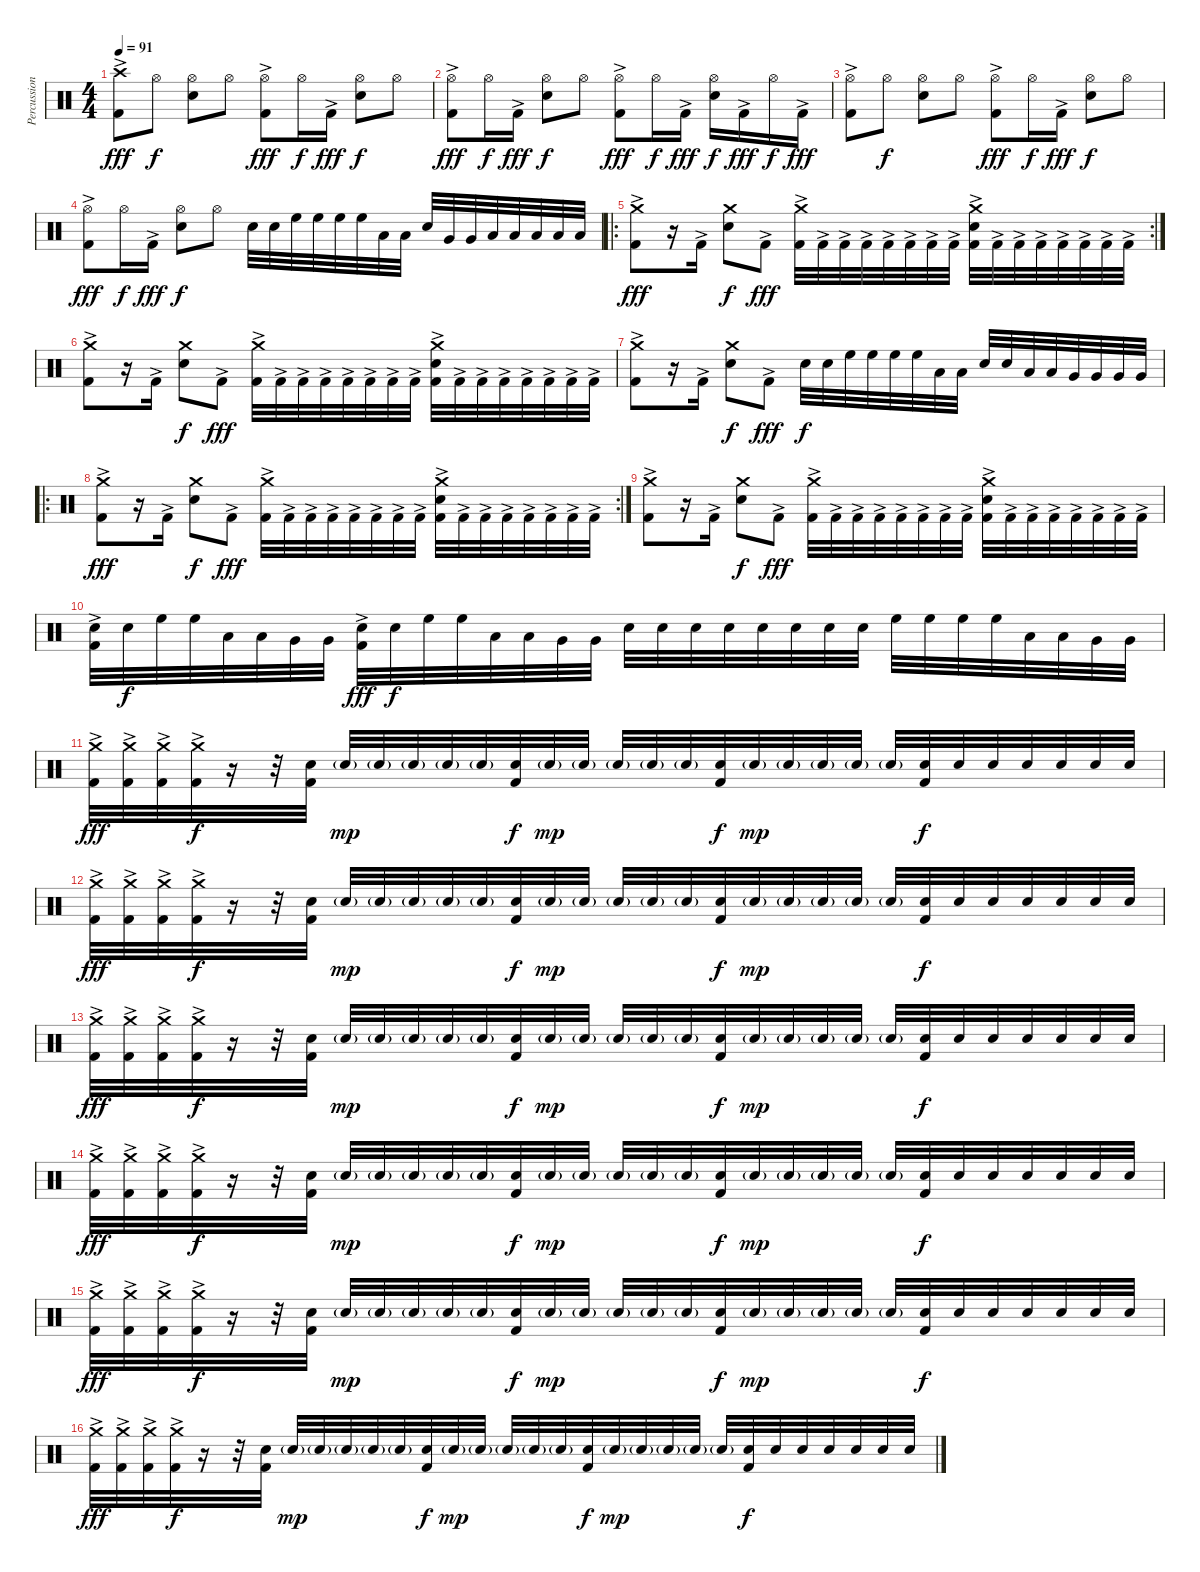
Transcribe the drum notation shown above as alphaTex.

\track ("Percussion" "Percussion") {instrument percussion}
\staff {score}
\articulation defaults
\ts (4 4)
\tempo 91
\clef neutral
\ks c
("Crash high (hit)" "Kick (hit) 2"{ac}).8{dy fff} "Hi-Hat (open)".8{dy f} ("Hi-Hat (open)" "Electric Snare (hit)").8 "Hi-Hat (open)".8 ("Hi-Hat (open)" "Kick (hit) 2"{ac}).8{dy fff} "Hi-Hat (open)".16{dy f} "Kick (hit) 2"{ac}.16{dy fff} ("Hi-Hat (open)" "Electric Snare (hit)").8{dy f} "Hi-Hat (open)".8 |
("Hi-Hat (open)" "Kick (hit) 2"{ac}).8{dy fff} "Hi-Hat (open)".16{dy f} "Kick (hit) 2"{ac}.16{dy fff} ("Hi-Hat (open)" "Electric Snare (hit)").8{dy f} "Hi-Hat (open)".8 ("Hi-Hat (open)" "Kick (hit) 2"{ac}).8{dy fff} "Hi-Hat (open)".16{dy f} "Kick (hit) 2"{ac}.16{dy fff} ("Hi-Hat (open)" "Electric Snare (hit)").16{dy f} "Kick (hit) 2"{ac}.16{dy fff} "Hi-Hat (open)".16{dy f} "Kick (hit) 2"{ac}.16{dy fff} |
("Hi-Hat (open)" "Kick (hit) 2"{ac}).8 "Hi-Hat (open)".8{dy f} ("Hi-Hat (open)" "Electric Snare (hit)").8 "Hi-Hat (open)".8 ("Hi-Hat (open)" "Kick (hit) 2"{ac}).8{dy fff} "Hi-Hat (open)".16{dy f} "Kick (hit) 2"{ac}.16{dy fff} ("Hi-Hat (open)" "Electric Snare (hit)").8{dy f} "Hi-Hat (open)".8 |
("Hi-Hat (open)" "Kick (hit) 2"{ac}).8{dy fff} "Hi-Hat (open)".16{dy f} "Kick (hit) 2"{ac}.16{dy fff} ("Hi-Hat (open)" "Electric Snare (hit)").8{dy f} "Hi-Hat (open)".8 "Electric Snare (hit)".32 "Electric Snare (hit)".32 "High Floor Tom (hit)".32 "High Floor Tom (hit)".32 "High Floor Tom (hit)".32 "High Floor Tom (hit)".32 "Low Tom (hit)".32 "Low Tom (hit)".32 "Electric Snare (hit)".32 "Very Low Tom (hit)".32 "Very Low Tom (hit)".32 "Low Floor Tom (hit)".32 "Low Floor Tom (hit)".32 "Low Floor Tom (hit)".32 "Low Floor Tom (hit)".32 "Low Floor Tom (hit)".32 |
\ro
\rc 2
("Crash medium (hit)" "Kick (hit) 2"{ac}).8{dy fff} r.16 "Kick (hit) 2"{ac}.16 ("Crash medium (hit)" "Electric Snare (hit)").8{dy f} "Kick (hit) 2"{ac}.8{dy fff} ("Crash medium (hit)" "Kick (hit) 2"{ac}).32 "Kick (hit) 2"{ac}.32 "Kick (hit) 2"{ac}.32 "Kick (hit) 2"{ac}.32 "Kick (hit) 2"{ac}.32 "Kick (hit) 2"{ac}.32 "Kick (hit) 2"{ac}.32 "Kick (hit) 2"{ac}.32 ("Crash medium (hit)" "Electric Snare (hit)" "Kick (hit) 2"{ac}).32 "Kick (hit) 2"{ac}.32 "Kick (hit) 2"{ac}.32 "Kick (hit) 2"{ac}.32 "Kick (hit) 2"{ac}.32 "Kick (hit) 2"{ac}.32 "Kick (hit) 2"{ac}.32 "Kick (hit) 2"{ac}.32 |
("Crash medium (hit)" "Kick (hit) 2"{ac}).8 r.16 "Kick (hit) 2"{ac}.16 ("Crash medium (hit)" "Electric Snare (hit)").8{dy f} "Kick (hit) 2"{ac}.8{dy fff} ("Crash medium (hit)" "Kick (hit) 2"{ac}).32 "Kick (hit) 2"{ac}.32 "Kick (hit) 2"{ac}.32 "Kick (hit) 2"{ac}.32 "Kick (hit) 2"{ac}.32 "Kick (hit) 2"{ac}.32 "Kick (hit) 2"{ac}.32 "Kick (hit) 2"{ac}.32 ("Crash medium (hit)" "Electric Snare (hit)" "Kick (hit) 2"{ac}).32 "Kick (hit) 2"{ac}.32 "Kick (hit) 2"{ac}.32 "Kick (hit) 2"{ac}.32 "Kick (hit) 2"{ac}.32 "Kick (hit) 2"{ac}.32 "Kick (hit) 2"{ac}.32 "Kick (hit) 2"{ac}.32 |
("Crash medium (hit)" "Kick (hit) 2"{ac}).8 r.16 "Kick (hit) 2"{ac}.16 ("Crash medium (hit)" "Electric Snare (hit)").8{dy f} "Kick (hit) 2"{ac}.8{dy fff} "Electric Snare (hit)".32{dy f} "Electric Snare (hit)".32 "High Floor Tom (hit)".32 "High Floor Tom (hit)".32 "High Floor Tom (hit)".32 "High Floor Tom (hit)".32 "Low Tom (hit)".32 "Low Tom (hit)".32 "Electric Snare (hit)".32 "Electric Snare (hit)".32 "Low Tom (hit)".32 "Low Tom (hit)".32 "Very Low Tom (hit)".32 "Very Low Tom (hit)".32 "Very Low Tom (hit)".32 "Very Low Tom (hit)".32 |
\ro
\rc 2
("Crash medium (hit)" "Kick (hit) 2"{ac}).8{dy fff} r.16 "Kick (hit) 2"{ac}.16 ("Crash medium (hit)" "Electric Snare (hit)").8{dy f} "Kick (hit) 2"{ac}.8{dy fff} ("Crash medium (hit)" "Kick (hit) 2"{ac}).32 "Kick (hit) 2"{ac}.32 "Kick (hit) 2"{ac}.32 "Kick (hit) 2"{ac}.32 "Kick (hit) 2"{ac}.32 "Kick (hit) 2"{ac}.32 "Kick (hit) 2"{ac}.32 "Kick (hit) 2"{ac}.32 ("Crash medium (hit)" "Electric Snare (hit)" "Kick (hit) 2"{ac}).32 "Kick (hit) 2"{ac}.32 "Kick (hit) 2"{ac}.32 "Kick (hit) 2"{ac}.32 "Kick (hit) 2"{ac}.32 "Kick (hit) 2"{ac}.32 "Kick (hit) 2"{ac}.32 "Kick (hit) 2"{ac}.32 |
("Crash medium (hit)" "Kick (hit) 2"{ac}).8 r.16 "Kick (hit) 2"{ac}.16 ("Crash medium (hit)" "Electric Snare (hit)").8{dy f} "Kick (hit) 2"{ac}.8{dy fff} ("Crash medium (hit)" "Kick (hit) 2"{ac}).32 "Kick (hit) 2"{ac}.32 "Kick (hit) 2"{ac}.32 "Kick (hit) 2"{ac}.32 "Kick (hit) 2"{ac}.32 "Kick (hit) 2"{ac}.32 "Kick (hit) 2"{ac}.32 "Kick (hit) 2"{ac}.32 ("Crash medium (hit)" "Electric Snare (hit)" "Kick (hit) 2"{ac}).32 "Kick (hit) 2"{ac}.32 "Kick (hit) 2"{ac}.32 "Kick (hit) 2"{ac}.32 "Kick (hit) 2"{ac}.32 "Kick (hit) 2"{ac}.32 "Kick (hit) 2"{ac}.32 "Kick (hit) 2"{ac}.32 |
("Electric Snare (hit)" "Kick (hit) 2"{ac}).32 "Electric Snare (hit)".32{dy f} "High Floor Tom (hit)".32 "High Floor Tom (hit)".32 "Low Tom (hit)".32 "Low Tom (hit)".32 "Very Low Tom (hit)".32 "Very Low Tom (hit)".32 ("Electric Snare (hit)" "Kick (hit) 2"{ac}).32{dy fff} "Electric Snare (hit)".32{dy f} "High Floor Tom (hit)".32 "High Floor Tom (hit)".32 "Low Tom (hit)".32 "Low Tom (hit)".32 "Very Low Tom (hit)".32 "Very Low Tom (hit)".32 "Electric Snare (hit)".32 "Electric Snare (hit)".32 "Electric Snare (hit)".32 "Electric Snare (hit)".32 "Electric Snare (hit)".32 "Electric Snare (hit)".32 "Electric Snare (hit)".32 "Electric Snare (hit)".32 "High Floor Tom (hit)".32 "High Floor Tom (hit)".32 "High Floor Tom (hit)".32 "High Floor Tom (hit)".32 "Low Tom (hit)".32 "Low Tom (hit)".32 "Very Low Tom (hit)".32 "Very Low Tom (hit)".32 |
("Crash medium (hit)" "Kick (hit) 2"{ac}).32{dy fff} ("Crash medium (hit)"{ac} "Kick (hit) 2").32 ("Crash medium (hit)"{ac} "Kick (hit) 2").32 ("Crash medium (hit)"{ac} "Kick (hit) 2").32{dy f} r.16 r.32 ("Electric Snare (hit)" "Kick (hit) 2").32 "Electric Snare (hit)"{g}.32{dy mp} "Electric Snare (hit)"{g}.32 "Electric Snare (hit)"{g}.32 "Electric Snare (hit)"{g}.32 "Electric Snare (hit)"{g}.32 ("Electric Snare (hit)" "Kick (hit) 2").32{dy f} "Electric Snare (hit)"{g}.32{dy mp} "Electric Snare (hit)"{g}.32 "Electric Snare (hit)"{g}.32 "Electric Snare (hit)"{g}.32 "Electric Snare (hit)"{g}.32 ("Electric Snare (hit)" "Kick (hit) 2").32{dy f} "Electric Snare (hit)"{g}.32{dy mp} "Electric Snare (hit)"{g}.32 "Electric Snare (hit)"{g}.32 "Electric Snare (hit)"{g}.32 "Electric Snare (hit)"{g}.32 ("Electric Snare (hit)" "Kick (hit) 2").32{dy f} "Electric Snare (hit)".32 "Electric Snare (hit)".32 "Electric Snare (hit)".32 "Electric Snare (hit)".32 "Electric Snare (hit)".32 "Electric Snare (hit)".32 |
("Crash medium (hit)" "Kick (hit) 2"{ac}).32{dy fff} ("Crash medium (hit)"{ac} "Kick (hit) 2").32 ("Crash medium (hit)"{ac} "Kick (hit) 2").32 ("Crash medium (hit)"{ac} "Kick (hit) 2").32{dy f} r.16 r.32 ("Electric Snare (hit)" "Kick (hit) 2").32 "Electric Snare (hit)"{g}.32{dy mp} "Electric Snare (hit)"{g}.32 "Electric Snare (hit)"{g}.32 "Electric Snare (hit)"{g}.32 "Electric Snare (hit)"{g}.32 ("Electric Snare (hit)" "Kick (hit) 2").32{dy f} "Electric Snare (hit)"{g}.32{dy mp} "Electric Snare (hit)"{g}.32 "Electric Snare (hit)"{g}.32 "Electric Snare (hit)"{g}.32 "Electric Snare (hit)"{g}.32 ("Electric Snare (hit)" "Kick (hit) 2").32{dy f} "Electric Snare (hit)"{g}.32{dy mp} "Electric Snare (hit)"{g}.32 "Electric Snare (hit)"{g}.32 "Electric Snare (hit)"{g}.32 "Electric Snare (hit)"{g}.32 ("Electric Snare (hit)" "Kick (hit) 2").32{dy f} "Electric Snare (hit)".32 "Electric Snare (hit)".32 "Electric Snare (hit)".32 "Electric Snare (hit)".32 "Electric Snare (hit)".32 "Electric Snare (hit)".32 |
("Crash medium (hit)" "Kick (hit) 2"{ac}).32{dy fff} ("Crash medium (hit)"{ac} "Kick (hit) 2").32 ("Crash medium (hit)"{ac} "Kick (hit) 2").32 ("Crash medium (hit)"{ac} "Kick (hit) 2").32{dy f} r.16 r.32 ("Electric Snare (hit)" "Kick (hit) 2").32 "Electric Snare (hit)"{g}.32{dy mp} "Electric Snare (hit)"{g}.32 "Electric Snare (hit)"{g}.32 "Electric Snare (hit)"{g}.32 "Electric Snare (hit)"{g}.32 ("Electric Snare (hit)" "Kick (hit) 2").32{dy f} "Electric Snare (hit)"{g}.32{dy mp} "Electric Snare (hit)"{g}.32 "Electric Snare (hit)"{g}.32 "Electric Snare (hit)"{g}.32 "Electric Snare (hit)"{g}.32 ("Electric Snare (hit)" "Kick (hit) 2").32{dy f} "Electric Snare (hit)"{g}.32{dy mp} "Electric Snare (hit)"{g}.32 "Electric Snare (hit)"{g}.32 "Electric Snare (hit)"{g}.32 "Electric Snare (hit)"{g}.32 ("Electric Snare (hit)" "Kick (hit) 2").32{dy f} "Electric Snare (hit)".32 "Electric Snare (hit)".32 "Electric Snare (hit)".32 "Electric Snare (hit)".32 "Electric Snare (hit)".32 "Electric Snare (hit)".32 |
("Crash medium (hit)" "Kick (hit) 2"{ac}).32{dy fff} ("Crash medium (hit)"{ac} "Kick (hit) 2").32 ("Crash medium (hit)"{ac} "Kick (hit) 2").32 ("Crash medium (hit)"{ac} "Kick (hit) 2").32{dy f} r.16 r.32 ("Electric Snare (hit)" "Kick (hit) 2").32 "Electric Snare (hit)"{g}.32{dy mp} "Electric Snare (hit)"{g}.32 "Electric Snare (hit)"{g}.32 "Electric Snare (hit)"{g}.32 "Electric Snare (hit)"{g}.32 ("Electric Snare (hit)" "Kick (hit) 2").32{dy f} "Electric Snare (hit)"{g}.32{dy mp} "Electric Snare (hit)"{g}.32 "Electric Snare (hit)"{g}.32 "Electric Snare (hit)"{g}.32 "Electric Snare (hit)"{g}.32 ("Electric Snare (hit)" "Kick (hit) 2").32{dy f} "Electric Snare (hit)"{g}.32{dy mp} "Electric Snare (hit)"{g}.32 "Electric Snare (hit)"{g}.32 "Electric Snare (hit)"{g}.32 "Electric Snare (hit)"{g}.32 ("Electric Snare (hit)" "Kick (hit) 2").32{dy f} "Electric Snare (hit)".32 "Electric Snare (hit)".32 "Electric Snare (hit)".32 "Electric Snare (hit)".32 "Electric Snare (hit)".32 "Electric Snare (hit)".32 |
("Crash medium (hit)" "Kick (hit) 2"{ac}).32{dy fff} ("Crash medium (hit)"{ac} "Kick (hit) 2").32 ("Crash medium (hit)"{ac} "Kick (hit) 2").32 ("Crash medium (hit)"{ac} "Kick (hit) 2").32{dy f} r.16 r.32 ("Electric Snare (hit)" "Kick (hit) 2").32 "Electric Snare (hit)"{g}.32{dy mp} "Electric Snare (hit)"{g}.32 "Electric Snare (hit)"{g}.32 "Electric Snare (hit)"{g}.32 "Electric Snare (hit)"{g}.32 ("Electric Snare (hit)" "Kick (hit) 2").32{dy f} "Electric Snare (hit)"{g}.32{dy mp} "Electric Snare (hit)"{g}.32 "Electric Snare (hit)"{g}.32 "Electric Snare (hit)"{g}.32 "Electric Snare (hit)"{g}.32 ("Electric Snare (hit)" "Kick (hit) 2").32{dy f} "Electric Snare (hit)"{g}.32{dy mp} "Electric Snare (hit)"{g}.32 "Electric Snare (hit)"{g}.32 "Electric Snare (hit)"{g}.32 "Electric Snare (hit)"{g}.32 ("Electric Snare (hit)" "Kick (hit) 2").32{dy f} "Electric Snare (hit)".32 "Electric Snare (hit)".32 "Electric Snare (hit)".32 "Electric Snare (hit)".32 "Electric Snare (hit)".32 "Electric Snare (hit)".32 |
("Crash medium (hit)" "Kick (hit) 2"{ac}).32{dy fff} ("Crash medium (hit)"{ac} "Kick (hit) 2").32 ("Crash medium (hit)"{ac} "Kick (hit) 2").32 ("Crash medium (hit)"{ac} "Kick (hit) 2").32{dy f} r.16 r.32 ("Electric Snare (hit)" "Kick (hit) 2").32 "Electric Snare (hit)"{g}.32{dy mp} "Electric Snare (hit)"{g}.32 "Electric Snare (hit)"{g}.32 "Electric Snare (hit)"{g}.32 "Electric Snare (hit)"{g}.32 ("Electric Snare (hit)" "Kick (hit) 2").32{dy f} "Electric Snare (hit)"{g}.32{dy mp} "Electric Snare (hit)"{g}.32 "Electric Snare (hit)"{g}.32 "Electric Snare (hit)"{g}.32 "Electric Snare (hit)"{g}.32 ("Electric Snare (hit)" "Kick (hit) 2").32{dy f} "Electric Snare (hit)"{g}.32{dy mp} "Electric Snare (hit)"{g}.32 "Electric Snare (hit)"{g}.32 "Electric Snare (hit)"{g}.32 "Electric Snare (hit)"{g}.32 ("Electric Snare (hit)" "Kick (hit) 2").32{dy f} "Electric Snare (hit)".32 "Electric Snare (hit)".32 "Electric Snare (hit)".32 "Electric Snare (hit)".32 "Electric Snare (hit)".32 "Electric Snare (hit)".32
